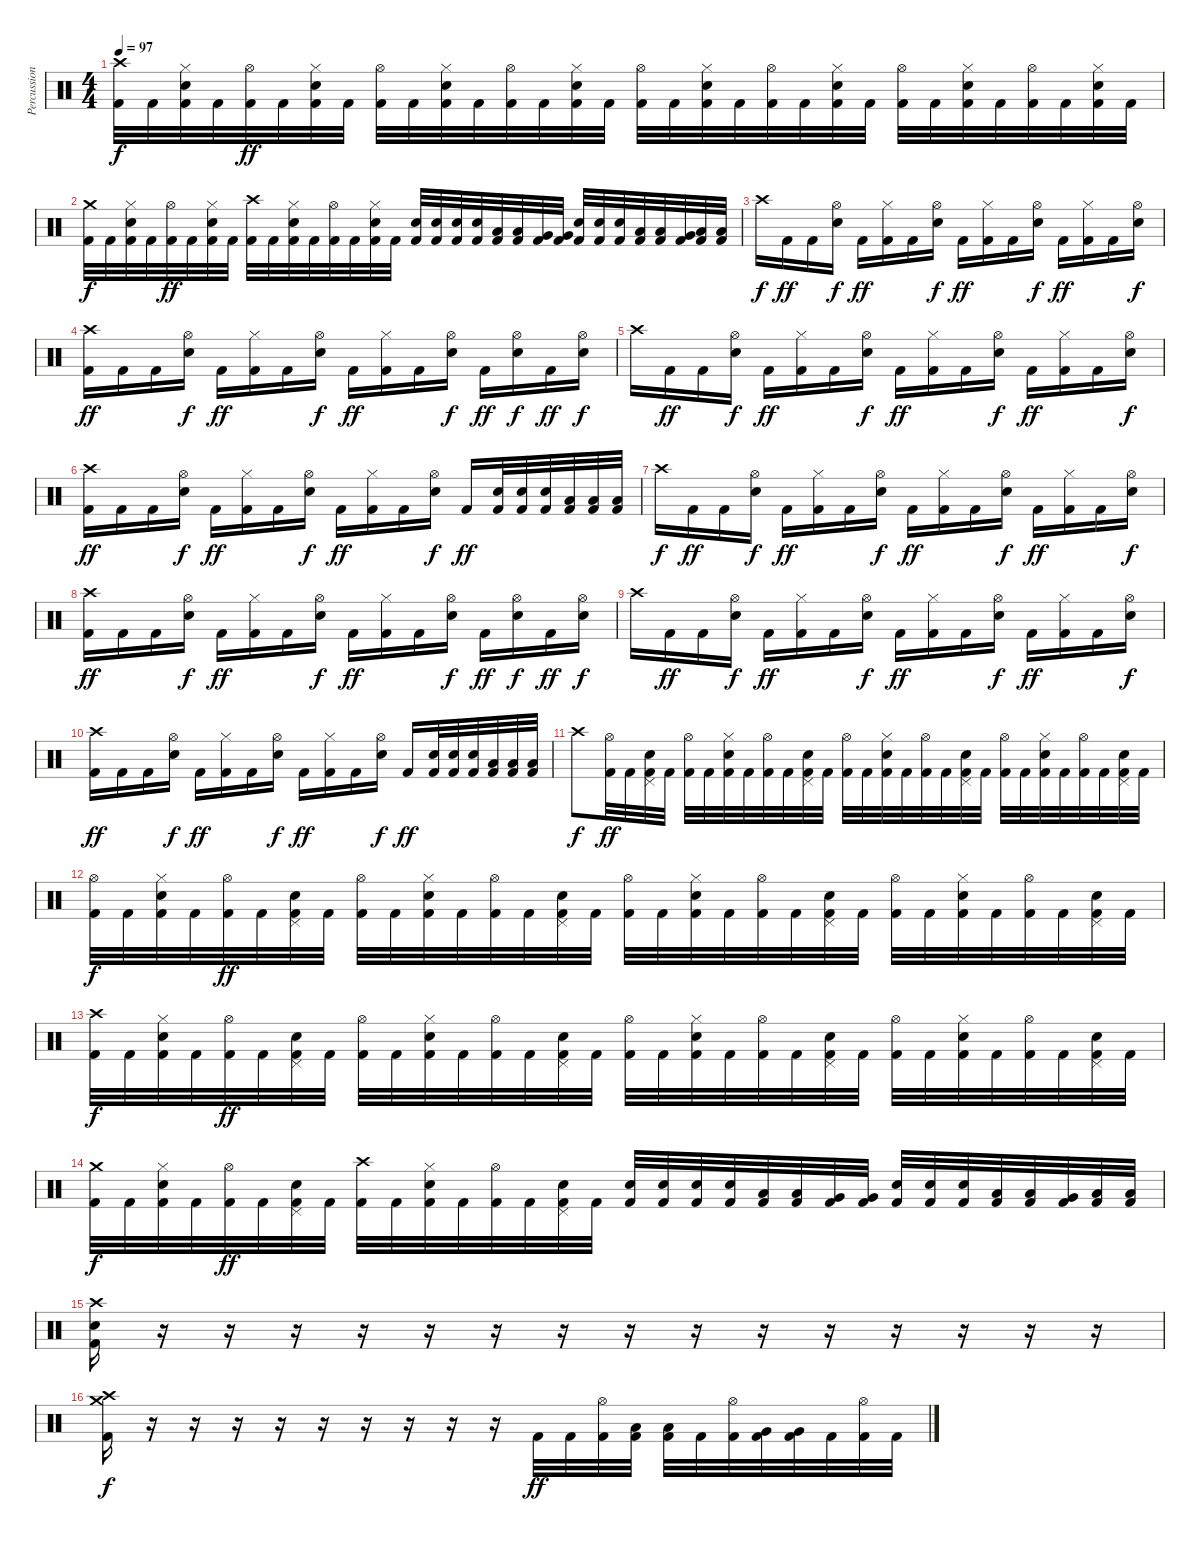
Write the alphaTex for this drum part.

\track ("Percussion" "Percussion") {instrument percussion}
\staff {score}
\articulation defaults
\ts (4 4)
\tempo 97
\clef neutral
\ks c
("Crash high (hit)" "Kick (hit) 2").32{dy f} "Kick (hit) 2".32 ("Hi-Hat (closed)" "Electric Snare (hit)" "Kick (hit) 2").32 "Kick (hit) 2".32 ("Hi-Hat (open)" "Kick (hit) 2").32{dy ff} "Kick (hit) 2".32 ("Hi-Hat (closed)" "Electric Snare (hit)" "Kick (hit) 2").32 "Kick (hit) 2".32 ("Hi-Hat (open)" "Kick (hit) 2").32 "Kick (hit) 2".32 ("Hi-Hat (closed)" "Electric Snare (hit)" "Kick (hit) 2").32 "Kick (hit) 2".32 ("Hi-Hat (open)" "Kick (hit) 2").32 "Kick (hit) 2".32 ("Hi-Hat (closed)" "Electric Snare (hit)" "Kick (hit) 2").32 "Kick (hit) 2".32 ("Hi-Hat (open)" "Kick (hit) 2").32 "Kick (hit) 2".32 ("Hi-Hat (closed)" "Electric Snare (hit)" "Kick (hit) 2").32 "Kick (hit) 2".32 ("Hi-Hat (open)" "Kick (hit) 2").32 "Kick (hit) 2".32 ("Hi-Hat (closed)" "Electric Snare (hit)" "Kick (hit) 2").32 "Kick (hit) 2".32 ("Hi-Hat (open)" "Kick (hit) 2").32 "Kick (hit) 2".32 ("Hi-Hat (closed)" "Electric Snare (hit)" "Kick (hit) 2").32 "Kick (hit) 2".32 ("Hi-Hat (open)" "Kick (hit) 2").32 "Kick (hit) 2".32 ("Hi-Hat (closed)" "Electric Snare (hit)" "Kick (hit) 2").32 "Kick (hit) 2".32 |
("Crash medium (hit)" "Kick (hit) 2").32{dy f} "Kick (hit) 2".32 ("Hi-Hat (closed)" "Electric Snare (hit)" "Kick (hit) 2").32 "Kick (hit) 2".32 ("Hi-Hat (open)" "Kick (hit) 2").32{dy ff} "Kick (hit) 2".32 ("Hi-Hat (closed)" "Electric Snare (hit)" "Kick (hit) 2").32 "Kick (hit) 2".32 ("Crash high (hit)" "Kick (hit) 2").32 "Kick (hit) 2".32 ("Hi-Hat (closed)" "Electric Snare (hit)" "Kick (hit) 2").32 "Kick (hit) 2".32 ("Hi-Hat (open)" "Kick (hit) 2").32 "Kick (hit) 2".32 ("Hi-Hat (closed)" "Electric Snare (hit)" "Kick (hit) 2").32 "Kick (hit) 2".32 ("Electric Snare (hit)" "Kick (hit) 2").32 ("Electric Snare (hit)" "Kick (hit) 2").32 ("Electric Snare (hit)" "Kick (hit) 2").32 ("Electric Snare (hit)" "Kick (hit) 2").32 ("Low Tom (hit)" "Kick (hit) 2").32 ("Low Tom (hit)" "Kick (hit) 2").32 ("Very Low Tom (hit)" "Kick (hit) 2").32 ("Very Low Tom (hit)" "Kick (hit) 2").32 ("Electric Snare (hit)" "Kick (hit) 2").32 ("Electric Snare (hit)" "Kick (hit) 2").32 ("Electric Snare (hit)" "Kick (hit) 2").32 ("Low Tom (hit)" "Kick (hit) 2").32 ("Low Tom (hit)" "Kick (hit) 2").32 ("Very Low Tom (hit)" "Kick (hit) 2").32 ("Low Floor Tom (hit)" "Kick (hit) 2").32 ("Low Floor Tom (hit)" "Kick (hit) 2").32 |
"Crash high (hit)".16{dy f} "Kick (hit) 2".16{dy ff} "Kick (hit) 2".16 ("Hi-Hat (open)" "Electric Snare (hit)").16{dy f} "Kick (hit) 2".16{dy ff} ("Hi-Hat (closed)" "Kick (hit) 2").16 "Kick (hit) 2".16 ("Hi-Hat (open)" "Electric Snare (hit)").16{dy f} "Kick (hit) 2".16{dy ff} ("Hi-Hat (closed)" "Kick (hit) 2").16 "Kick (hit) 2".16 ("Hi-Hat (open)" "Electric Snare (hit)").16{dy f} "Kick (hit) 2".16{dy ff} ("Hi-Hat (closed)" "Kick (hit) 2").16 "Kick (hit) 2".16 ("Hi-Hat (open)" "Electric Snare (hit)").16{dy f} |
("Crash high (hit)" "Kick (hit) 2").16{dy ff} "Kick (hit) 2".16 "Kick (hit) 2".16 ("Hi-Hat (open)" "Electric Snare (hit)").16{dy f} "Kick (hit) 2".16{dy ff} ("Hi-Hat (closed)" "Kick (hit) 2").16 "Kick (hit) 2".16 ("Hi-Hat (open)" "Electric Snare (hit)").16{dy f} "Kick (hit) 2".16{dy ff} ("Hi-Hat (closed)" "Kick (hit) 2").16 "Kick (hit) 2".16 ("Hi-Hat (open)" "Electric Snare (hit)").16{dy f} "Kick (hit) 2".16{dy ff} ("Hi-Hat (open)" "Electric Snare (hit)").16{dy f} "Kick (hit) 2".16{dy ff} ("Hi-Hat (open)" "Electric Snare (hit)").16{dy f} |
"Crash high (hit)".16 "Kick (hit) 2".16{dy ff} "Kick (hit) 2".16 ("Hi-Hat (open)" "Electric Snare (hit)").16{dy f} "Kick (hit) 2".16{dy ff} ("Hi-Hat (closed)" "Kick (hit) 2").16 "Kick (hit) 2".16 ("Hi-Hat (open)" "Electric Snare (hit)").16{dy f} "Kick (hit) 2".16{dy ff} ("Hi-Hat (closed)" "Kick (hit) 2").16 "Kick (hit) 2".16 ("Hi-Hat (open)" "Electric Snare (hit)").16{dy f} "Kick (hit) 2".16{dy ff} ("Hi-Hat (closed)" "Kick (hit) 2").16 "Kick (hit) 2".16 ("Hi-Hat (open)" "Electric Snare (hit)").16{dy f} |
("Crash high (hit)" "Kick (hit) 2").16{dy ff} "Kick (hit) 2".16 "Kick (hit) 2".16 ("Hi-Hat (open)" "Electric Snare (hit)").16{dy f} "Kick (hit) 2".16{dy ff} ("Hi-Hat (closed)" "Kick (hit) 2").16 "Kick (hit) 2".16 ("Hi-Hat (open)" "Electric Snare (hit)").16{dy f} "Kick (hit) 2".16{dy ff} ("Hi-Hat (closed)" "Kick (hit) 2").16 "Kick (hit) 2".16 ("Hi-Hat (open)" "Electric Snare (hit)").16{dy f} "Kick (hit) 2".16{dy ff} ("Electric Snare (hit)" "Kick (hit) 2").32 ("Electric Snare (hit)" "Kick (hit) 2").32 ("Electric Snare (hit)" "Kick (hit) 2").32 ("Low Tom (hit)" "Kick (hit) 2").32 ("Low Tom (hit)" "Kick (hit) 2").32 ("Low Tom (hit)" "Kick (hit) 2").32 |
"Crash high (hit)".16{dy f} "Kick (hit) 2".16{dy ff} "Kick (hit) 2".16 ("Hi-Hat (open)" "Electric Snare (hit)").16{dy f} "Kick (hit) 2".16{dy ff} ("Hi-Hat (closed)" "Kick (hit) 2").16 "Kick (hit) 2".16 ("Hi-Hat (open)" "Electric Snare (hit)").16{dy f} "Kick (hit) 2".16{dy ff} ("Hi-Hat (closed)" "Kick (hit) 2").16 "Kick (hit) 2".16 ("Hi-Hat (open)" "Electric Snare (hit)").16{dy f} "Kick (hit) 2".16{dy ff} ("Hi-Hat (closed)" "Kick (hit) 2").16 "Kick (hit) 2".16 ("Hi-Hat (open)" "Electric Snare (hit)").16{dy f} |
("Crash high (hit)" "Kick (hit) 2").16{dy ff} "Kick (hit) 2".16 "Kick (hit) 2".16 ("Hi-Hat (open)" "Electric Snare (hit)").16{dy f} "Kick (hit) 2".16{dy ff} ("Hi-Hat (closed)" "Kick (hit) 2").16 "Kick (hit) 2".16 ("Hi-Hat (open)" "Electric Snare (hit)").16{dy f} "Kick (hit) 2".16{dy ff} ("Hi-Hat (closed)" "Kick (hit) 2").16 "Kick (hit) 2".16 ("Hi-Hat (open)" "Electric Snare (hit)").16{dy f} "Kick (hit) 2".16{dy ff} ("Hi-Hat (open)" "Electric Snare (hit)").16{dy f} "Kick (hit) 2".16{dy ff} ("Hi-Hat (open)" "Electric Snare (hit)").16{dy f} |
"Crash high (hit)".16 "Kick (hit) 2".16{dy ff} "Kick (hit) 2".16 ("Hi-Hat (open)" "Electric Snare (hit)").16{dy f} "Kick (hit) 2".16{dy ff} ("Hi-Hat (closed)" "Kick (hit) 2").16 "Kick (hit) 2".16 ("Hi-Hat (open)" "Electric Snare (hit)").16{dy f} "Kick (hit) 2".16{dy ff} ("Hi-Hat (closed)" "Kick (hit) 2").16 "Kick (hit) 2".16 ("Hi-Hat (open)" "Electric Snare (hit)").16{dy f} "Kick (hit) 2".16{dy ff} ("Hi-Hat (closed)" "Kick (hit) 2").16 "Kick (hit) 2".16 ("Hi-Hat (open)" "Electric Snare (hit)").16{dy f} |
("Crash high (hit)" "Kick (hit) 2").16{dy ff} "Kick (hit) 2".16 "Kick (hit) 2".16 ("Hi-Hat (open)" "Electric Snare (hit)").16{dy f} "Kick (hit) 2".16{dy ff} ("Hi-Hat (closed)" "Kick (hit) 2").16 "Kick (hit) 2".16 ("Hi-Hat (open)" "Electric Snare (hit)").16{dy f} "Kick (hit) 2".16{dy ff} ("Hi-Hat (closed)" "Kick (hit) 2").16 "Kick (hit) 2".16 ("Hi-Hat (open)" "Electric Snare (hit)").16{dy f} "Kick (hit) 2".16{dy ff} ("Electric Snare (hit)" "Kick (hit) 2").32 ("Electric Snare (hit)" "Kick (hit) 2").32 ("Electric Snare (hit)" "Kick (hit) 2").32 ("Low Tom (hit)" "Kick (hit) 2").32 ("Low Tom (hit)" "Kick (hit) 2").32 ("Low Tom (hit)" "Kick (hit) 2").32 |
"Crash high (hit)".8{dy f} ("Hi-Hat (open)" "Kick (hit) 2").32{dy ff} "Kick (hit) 2".32 ("Pedal Hi-Hat (hit)" "Electric Snare (hit)" "Kick (hit) 2").32 "Kick (hit) 2".32 ("Hi-Hat (open)" "Kick (hit) 2").32 "Kick (hit) 2".32 ("Hi-Hat (closed)" "Electric Snare (hit)" "Kick (hit) 2").32 "Kick (hit) 2".32 ("Hi-Hat (open)" "Kick (hit) 2").32 "Kick (hit) 2".32 ("Pedal Hi-Hat (hit)" "Electric Snare (hit)" "Kick (hit) 2").32 "Kick (hit) 2".32 ("Hi-Hat (open)" "Kick (hit) 2").32 "Kick (hit) 2".32 ("Hi-Hat (closed)" "Electric Snare (hit)" "Kick (hit) 2").32 "Kick (hit) 2".32 ("Hi-Hat (open)" "Kick (hit) 2").32 "Kick (hit) 2".32 ("Pedal Hi-Hat (hit)" "Electric Snare (hit)" "Kick (hit) 2").32 "Kick (hit) 2".32 ("Hi-Hat (open)" "Kick (hit) 2").32 "Kick (hit) 2".32 ("Hi-Hat (closed)" "Electric Snare (hit)" "Kick (hit) 2").32 "Kick (hit) 2".32 ("Hi-Hat (open)" "Kick (hit) 2").32 "Kick (hit) 2".32 ("Pedal Hi-Hat (hit)" "Electric Snare (hit)" "Kick (hit) 2").32 "Kick (hit) 2".32 |
("Hi-Hat (open)" "Kick (hit) 2").32{dy f} "Kick (hit) 2".32 ("Hi-Hat (closed)" "Electric Snare (hit)" "Kick (hit) 2").32 "Kick (hit) 2".32 ("Hi-Hat (open)" "Kick (hit) 2").32{dy ff} "Kick (hit) 2".32 ("Pedal Hi-Hat (hit)" "Electric Snare (hit)" "Kick (hit) 2").32 "Kick (hit) 2".32 ("Hi-Hat (open)" "Kick (hit) 2").32 "Kick (hit) 2".32 ("Hi-Hat (closed)" "Electric Snare (hit)" "Kick (hit) 2").32 "Kick (hit) 2".32 ("Hi-Hat (open)" "Kick (hit) 2").32 "Kick (hit) 2".32 ("Pedal Hi-Hat (hit)" "Electric Snare (hit)" "Kick (hit) 2").32 "Kick (hit) 2".32 ("Hi-Hat (open)" "Kick (hit) 2").32 "Kick (hit) 2".32 ("Hi-Hat (closed)" "Electric Snare (hit)" "Kick (hit) 2").32 "Kick (hit) 2".32 ("Hi-Hat (open)" "Kick (hit) 2").32 "Kick (hit) 2".32 ("Pedal Hi-Hat (hit)" "Electric Snare (hit)" "Kick (hit) 2").32 "Kick (hit) 2".32 ("Hi-Hat (open)" "Kick (hit) 2").32 "Kick (hit) 2".32 ("Hi-Hat (closed)" "Electric Snare (hit)" "Kick (hit) 2").32 "Kick (hit) 2".32 ("Hi-Hat (open)" "Kick (hit) 2").32 "Kick (hit) 2".32 ("Pedal Hi-Hat (hit)" "Electric Snare (hit)" "Kick (hit) 2").32 "Kick (hit) 2".32 |
("Crash high (hit)" "Kick (hit) 2").32{dy f} "Kick (hit) 2".32 ("Hi-Hat (closed)" "Electric Snare (hit)" "Kick (hit) 2").32 "Kick (hit) 2".32 ("Hi-Hat (open)" "Kick (hit) 2").32{dy ff} "Kick (hit) 2".32 ("Pedal Hi-Hat (hit)" "Electric Snare (hit)" "Kick (hit) 2").32 "Kick (hit) 2".32 ("Hi-Hat (open)" "Kick (hit) 2").32 "Kick (hit) 2".32 ("Hi-Hat (closed)" "Electric Snare (hit)" "Kick (hit) 2").32 "Kick (hit) 2".32 ("Hi-Hat (open)" "Kick (hit) 2").32 "Kick (hit) 2".32 ("Pedal Hi-Hat (hit)" "Electric Snare (hit)" "Kick (hit) 2").32 "Kick (hit) 2".32 ("Hi-Hat (open)" "Kick (hit) 2").32 "Kick (hit) 2".32 ("Hi-Hat (closed)" "Electric Snare (hit)" "Kick (hit) 2").32 "Kick (hit) 2".32 ("Hi-Hat (open)" "Kick (hit) 2").32 "Kick (hit) 2".32 ("Pedal Hi-Hat (hit)" "Electric Snare (hit)" "Kick (hit) 2").32 "Kick (hit) 2".32 ("Hi-Hat (open)" "Kick (hit) 2").32 "Kick (hit) 2".32 ("Hi-Hat (closed)" "Electric Snare (hit)" "Kick (hit) 2").32 "Kick (hit) 2".32 ("Hi-Hat (open)" "Kick (hit) 2").32 "Kick (hit) 2".32 ("Pedal Hi-Hat (hit)" "Electric Snare (hit)" "Kick (hit) 2").32 "Kick (hit) 2".32 |
("Crash medium (hit)" "Kick (hit) 2").32{dy f} "Kick (hit) 2".32 ("Hi-Hat (closed)" "Electric Snare (hit)" "Kick (hit) 2").32 "Kick (hit) 2".32 ("Hi-Hat (open)" "Kick (hit) 2").32{dy ff} "Kick (hit) 2".32 ("Pedal Hi-Hat (hit)" "Electric Snare (hit)" "Kick (hit) 2").32 "Kick (hit) 2".32 ("Crash high (hit)" "Kick (hit) 2").32 "Kick (hit) 2".32 ("Hi-Hat (closed)" "Electric Snare (hit)" "Kick (hit) 2").32 "Kick (hit) 2".32 ("Hi-Hat (open)" "Kick (hit) 2").32 "Kick (hit) 2".32 ("Pedal Hi-Hat (hit)" "Electric Snare (hit)" "Kick (hit) 2").32 "Kick (hit) 2".32 ("Electric Snare (hit)" "Kick (hit) 2").32 ("Electric Snare (hit)" "Kick (hit) 2").32 ("Electric Snare (hit)" "Kick (hit) 2").32 ("Electric Snare (hit)" "Kick (hit) 2").32 ("Low Tom (hit)" "Kick (hit) 2").32 ("Low Tom (hit)" "Kick (hit) 2").32 ("Very Low Tom (hit)" "Kick (hit) 2").32 ("Very Low Tom (hit)" "Kick (hit) 2").32 ("Electric Snare (hit)" "Kick (hit) 2").32 ("Electric Snare (hit)" "Kick (hit) 2").32 ("Electric Snare (hit)" "Kick (hit) 2").32 ("Low Tom (hit)" "Kick (hit) 2").32 ("Low Tom (hit)" "Kick (hit) 2").32 ("Very Low Tom (hit)" "Kick (hit) 2").32 ("Low Floor Tom (hit)" "Kick (hit) 2").32 ("Low Floor Tom (hit)" "Kick (hit) 2").32 |
("Crash high (hit)" "Electric Snare (hit)" "Kick (hit) 2").16 r.16 r.16 r.16 r.16 r.16 r.16 r.16 r.16 r.16 r.16 r.16 r.16 r.16 r.16 r.16 |
("Crash high (hit)" "Crash medium (hit)" "Kick (hit) 2").16{dy f} r.16 r.16 r.16 r.16 r.16 r.16 r.16 r.16 r.16 "Kick (hit) 2".32{dy ff} "Kick (hit) 2".32 ("Hi-Hat (open)" "Kick (hit) 2").32 ("Low Tom (hit)" "Kick (hit) 2").32 ("Low Tom (hit)" "Kick (hit) 2").32 "Kick (hit) 2".32 ("Hi-Hat (open)" "Kick (hit) 2").32 ("Very Low Tom (hit)" "Kick (hit) 2").32 ("Very Low Tom (hit)" "Kick (hit) 2").32 "Kick (hit) 2".32 ("Hi-Hat (open)" "Kick (hit) 2").32 "Kick (hit) 2".32
